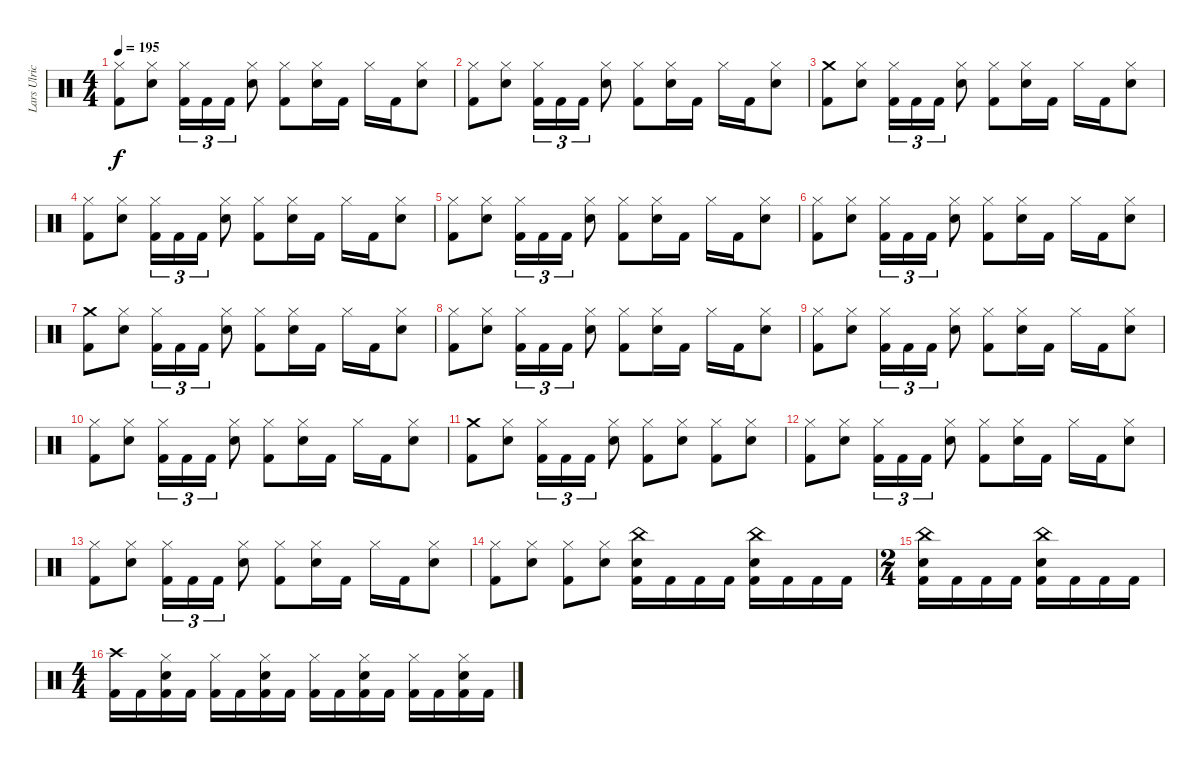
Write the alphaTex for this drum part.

\track ("Lars Ulrich" "Lars Ulric") {instrument percussion}
\staff {score}
\articulation defaults
\ts (4 4)
\tempo 195
\clef neutral
\ks c
("Hi-Hat (closed)" "Kick (hit) 2").8{dy f} ("Hi-Hat (closed)" "Electric Snare (hit)").8 ("Hi-Hat (closed)" "Kick (hit) 2").16{tu (3 2)} "Kick (hit) 2".16{tu (3 2)} "Kick (hit) 2".16{tu (3 2)} ("Hi-Hat (closed)" "Electric Snare (hit)").8 ("Hi-Hat (closed)" "Kick (hit) 2").8 ("Hi-Hat (closed)" "Electric Snare (hit)").16 "Kick (hit) 2".16 "Hi-Hat (closed)".16 "Kick (hit) 2".16 ("Hi-Hat (closed)" "Electric Snare (hit)").8 |
("Hi-Hat (closed)" "Kick (hit) 2").8 ("Hi-Hat (closed)" "Electric Snare (hit)").8 ("Hi-Hat (closed)" "Kick (hit) 2").16{tu (3 2)} "Kick (hit) 2".16{tu (3 2)} "Kick (hit) 2".16{tu (3 2)} ("Hi-Hat (closed)" "Electric Snare (hit)").8 ("Hi-Hat (closed)" "Kick (hit) 2").8 ("Hi-Hat (closed)" "Electric Snare (hit)").16 "Kick (hit) 2".16 "Hi-Hat (closed)".16 "Kick (hit) 2".16 ("Hi-Hat (closed)" "Electric Snare (hit)").8 |
("Crash medium (hit)" "Kick (hit) 2").8 ("Hi-Hat (closed)" "Electric Snare (hit)").8 ("Hi-Hat (closed)" "Kick (hit) 2").16{tu (3 2)} "Kick (hit) 2".16{tu (3 2)} "Kick (hit) 2".16{tu (3 2)} ("Hi-Hat (closed)" "Electric Snare (hit)").8 ("Hi-Hat (closed)" "Kick (hit) 2").8 ("Hi-Hat (closed)" "Electric Snare (hit)").16 "Kick (hit) 2".16 "Hi-Hat (closed)".16 "Kick (hit) 2".16 ("Hi-Hat (closed)" "Electric Snare (hit)").8 |
("Hi-Hat (closed)" "Kick (hit) 2").8 ("Hi-Hat (closed)" "Electric Snare (hit)").8 ("Hi-Hat (closed)" "Kick (hit) 2").16{tu (3 2)} "Kick (hit) 2".16{tu (3 2)} "Kick (hit) 2".16{tu (3 2)} ("Hi-Hat (closed)" "Electric Snare (hit)").8 ("Hi-Hat (closed)" "Kick (hit) 2").8 ("Hi-Hat (closed)" "Electric Snare (hit)").16 "Kick (hit) 2".16 "Hi-Hat (closed)".16 "Kick (hit) 2".16 ("Hi-Hat (closed)" "Electric Snare (hit)").8 |
("Hi-Hat (closed)" "Kick (hit) 2").8 ("Hi-Hat (closed)" "Electric Snare (hit)").8 ("Hi-Hat (closed)" "Kick (hit) 2").16{tu (3 2)} "Kick (hit) 2".16{tu (3 2)} "Kick (hit) 2".16{tu (3 2)} ("Hi-Hat (closed)" "Electric Snare (hit)").8 ("Hi-Hat (closed)" "Kick (hit) 2").8 ("Hi-Hat (closed)" "Electric Snare (hit)").16 "Kick (hit) 2".16 "Hi-Hat (closed)".16 "Kick (hit) 2".16 ("Hi-Hat (closed)" "Electric Snare (hit)").8 |
("Hi-Hat (closed)" "Kick (hit) 2").8 ("Hi-Hat (closed)" "Electric Snare (hit)").8 ("Hi-Hat (closed)" "Kick (hit) 2").16{tu (3 2)} "Kick (hit) 2".16{tu (3 2)} "Kick (hit) 2".16{tu (3 2)} ("Hi-Hat (closed)" "Electric Snare (hit)").8 ("Hi-Hat (closed)" "Kick (hit) 2").8 ("Hi-Hat (closed)" "Electric Snare (hit)").16 "Kick (hit) 2".16 "Hi-Hat (closed)".16 "Kick (hit) 2".16 ("Hi-Hat (closed)" "Electric Snare (hit)").8 |
("Crash medium (hit)" "Kick (hit) 2").8 ("Hi-Hat (closed)" "Electric Snare (hit)").8 ("Hi-Hat (closed)" "Kick (hit) 2").16{tu (3 2)} "Kick (hit) 2".16{tu (3 2)} "Kick (hit) 2".16{tu (3 2)} ("Hi-Hat (closed)" "Electric Snare (hit)").8 ("Hi-Hat (closed)" "Kick (hit) 2").8 ("Hi-Hat (closed)" "Electric Snare (hit)").16 "Kick (hit) 2".16 "Hi-Hat (closed)".16 "Kick (hit) 2".16 ("Hi-Hat (closed)" "Electric Snare (hit)").8 |
("Hi-Hat (closed)" "Kick (hit) 2").8 ("Hi-Hat (closed)" "Electric Snare (hit)").8 ("Hi-Hat (closed)" "Kick (hit) 2").16{tu (3 2)} "Kick (hit) 2".16{tu (3 2)} "Kick (hit) 2".16{tu (3 2)} ("Hi-Hat (closed)" "Electric Snare (hit)").8 ("Hi-Hat (closed)" "Kick (hit) 2").8 ("Hi-Hat (closed)" "Electric Snare (hit)").16 "Kick (hit) 2".16 "Hi-Hat (closed)".16 "Kick (hit) 2".16 ("Hi-Hat (closed)" "Electric Snare (hit)").8 |
("Hi-Hat (closed)" "Kick (hit) 2").8 ("Hi-Hat (closed)" "Electric Snare (hit)").8 ("Hi-Hat (closed)" "Kick (hit) 2").16{tu (3 2)} "Kick (hit) 2".16{tu (3 2)} "Kick (hit) 2".16{tu (3 2)} ("Hi-Hat (closed)" "Electric Snare (hit)").8 ("Hi-Hat (closed)" "Kick (hit) 2").8 ("Hi-Hat (closed)" "Electric Snare (hit)").16 "Kick (hit) 2".16 "Hi-Hat (closed)".16 "Kick (hit) 2".16 ("Hi-Hat (closed)" "Electric Snare (hit)").8 |
("Hi-Hat (closed)" "Kick (hit) 2").8 ("Hi-Hat (closed)" "Electric Snare (hit)").8 ("Hi-Hat (closed)" "Kick (hit) 2").16{tu (3 2)} "Kick (hit) 2".16{tu (3 2)} "Kick (hit) 2".16{tu (3 2)} ("Hi-Hat (closed)" "Electric Snare (hit)").8 ("Hi-Hat (closed)" "Kick (hit) 2").8 ("Hi-Hat (closed)" "Electric Snare (hit)").16 "Kick (hit) 2".16 "Hi-Hat (closed)".16 "Kick (hit) 2".16 ("Hi-Hat (closed)" "Electric Snare (hit)").8 |
("Crash medium (hit)" "Kick (hit) 2").8 ("Hi-Hat (closed)" "Electric Snare (hit)").8 ("Hi-Hat (closed)" "Kick (hit) 2").16{tu (3 2)} "Kick (hit) 2".16{tu (3 2)} "Kick (hit) 2".16{tu (3 2)} ("Hi-Hat (closed)" "Electric Snare (hit)").8 ("Hi-Hat (closed)" "Kick (hit) 2").8 ("Hi-Hat (closed)" "Electric Snare (hit)").8 ("Hi-Hat (closed)" "Kick (hit) 2").8 ("Hi-Hat (closed)" "Electric Snare (hit)").8 |
("Hi-Hat (closed)" "Kick (hit) 2").8 ("Hi-Hat (closed)" "Electric Snare (hit)").8 ("Hi-Hat (closed)" "Kick (hit) 2").16{tu (3 2)} "Kick (hit) 2".16{tu (3 2)} "Kick (hit) 2".16{tu (3 2)} ("Hi-Hat (closed)" "Electric Snare (hit)").8 ("Hi-Hat (closed)" "Kick (hit) 2").8 ("Hi-Hat (closed)" "Electric Snare (hit)").16 "Kick (hit) 2".16 "Hi-Hat (closed)".16 "Kick (hit) 2".16 ("Hi-Hat (closed)" "Electric Snare (hit)").8 |
("Hi-Hat (closed)" "Kick (hit) 2").8 ("Hi-Hat (closed)" "Electric Snare (hit)").8 ("Hi-Hat (closed)" "Kick (hit) 2").16{tu (3 2)} "Kick (hit) 2".16{tu (3 2)} "Kick (hit) 2".16{tu (3 2)} ("Hi-Hat (closed)" "Electric Snare (hit)").8 ("Hi-Hat (closed)" "Kick (hit) 2").8 ("Hi-Hat (closed)" "Electric Snare (hit)").16 "Kick (hit) 2".16 "Hi-Hat (closed)".16 "Kick (hit) 2".16 ("Hi-Hat (closed)" "Electric Snare (hit)").8 |
("Hi-Hat (closed)" "Kick (hit) 2").8 ("Hi-Hat (closed)" "Electric Snare (hit)").8 ("Hi-Hat (closed)" "Kick (hit) 2").8 ("Hi-Hat (closed)" "Electric Snare (hit)").8 ("China (hit)" "Electric Snare (hit)" "Kick (hit) 2").16 "Kick (hit) 2".16 "Kick (hit) 2".16 "Kick (hit) 2".16 ("China (hit)" "Electric Snare (hit)" "Kick (hit) 2").16 "Kick (hit) 2".16 "Kick (hit) 2".16 "Kick (hit) 2".16 |
\ts (2 4)
("China (hit)" "Electric Snare (hit)" "Kick (hit) 2").16 "Kick (hit) 2".16 "Kick (hit) 2".16 "Kick (hit) 2".16 ("China (hit)" "Electric Snare (hit)" "Kick (hit) 2").16 "Kick (hit) 2".16 "Kick (hit) 2".16 "Kick (hit) 2".16 |
\ts (4 4)
("Crash high (hit)" "Kick (hit) 2").16 "Kick (hit) 2".16 ("Hi-Hat (closed)" "Electric Snare (hit)" "Kick (hit) 2").16 "Kick (hit) 2".16 ("Hi-Hat (closed)" "Kick (hit) 2").16 "Kick (hit) 2".16 ("Hi-Hat (closed)" "Electric Snare (hit)" "Kick (hit) 2").16 "Kick (hit) 2".16 ("Hi-Hat (closed)" "Kick (hit) 2").16 "Kick (hit) 2".16 ("Hi-Hat (closed)" "Electric Snare (hit)" "Kick (hit) 2").16 "Kick (hit) 2".16 ("Hi-Hat (closed)" "Kick (hit) 2").16 "Kick (hit) 2".16 ("Hi-Hat (closed)" "Electric Snare (hit)" "Kick (hit) 2").16 "Kick (hit) 2".16
